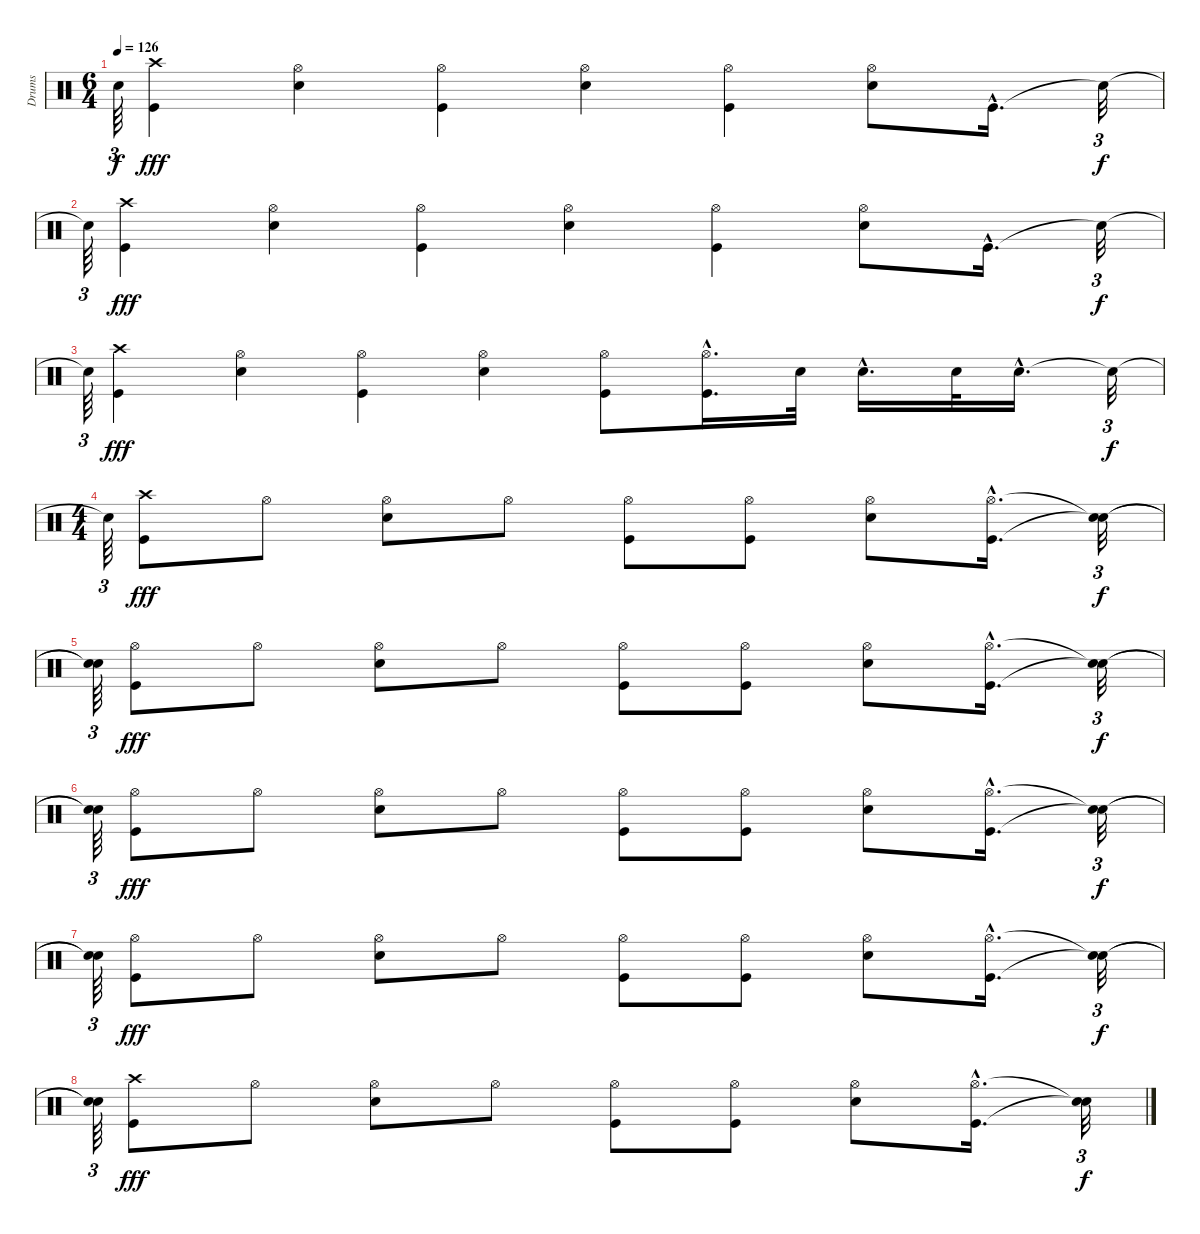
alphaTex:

\track ("Drums" "Drums") {instrument percussion}
\staff {score}
\articulation defaults
\ts (6 4)
\tempo 126
\clef neutral
\ks c "Snare (hit)"{t}.64{tu (3 2) dy f}
("Kick (hit)" "Crash high (hit)").4{dy fff} ("Snare (hit) 2" "Hi-Hat (open)").4 ("Kick (hit)" "Hi-Hat (open)").4 ("Snare (hit) 2" "Hi-Hat (open)").4 ("Kick (hit)" "Hi-Hat (open)").4 ("Snare (hit) 2" "Hi-Hat (open)").8 "Kick (hit)"{hac}.16{d} "Snare (hit)"{t}.32{tu (3 2) dy f} |
"Snare (hit)"{t}.64{tu (3 2)} ("Kick (hit)" "Crash high (hit)").4{dy fff} ("Snare (hit) 2" "Hi-Hat (open)").4 ("Kick (hit)" "Hi-Hat (open)").4 ("Snare (hit) 2" "Hi-Hat (open)").4 ("Kick (hit)" "Hi-Hat (open)").4 ("Snare (hit) 2" "Hi-Hat (open)").8 "Kick (hit)"{hac}.16{d} "Snare (hit)"{t}.32{tu (3 2) dy f} |
"Snare (hit)"{t}.64{tu (3 2)} ("Kick (hit)" "Crash high (hit)").4{dy fff} ("Snare (hit) 2" "Hi-Hat (open)").4 ("Kick (hit)" "Hi-Hat (open)").4 ("Snare (hit) 2" "Hi-Hat (open)").4 ("Kick (hit)" "Hi-Hat (open)").8 ("Kick (hit)" "Hi-Hat (open)"{hac}).16{d} "Snare (hit) 2".32 "Snare (hit) 2"{hac}.16{d} "Snare (hit) 2".32 "Snare (hit) 2"{hac}.16{d} "Snare (hit)"{t}.32{tu (3 2) dy f} |
\ts (4 4)
"Snare (hit)"{t}.64{tu (3 2)} ("Kick (hit)" "Crash high (hit)").8{dy fff} "Hi-Hat (open)".8 ("Snare (hit) 2" "Hi-Hat (open)").8 "Hi-Hat (open)".8 ("Kick (hit)" "Hi-Hat (open)").8 ("Kick (hit)" "Hi-Hat (open)").8 ("Snare (hit) 2" "Hi-Hat (open)").8 ("Kick (hit)"{hac} "Hi-Hat (open)"{hac}).16{d} ("Snare (hit)"{t} "Snare (hit)"{t}).32{tu (3 2) dy f} |
("Snare (hit)"{t} "Snare (hit)"{t}).64{tu (3 2)} ("Kick (hit)" "Hi-Hat (open)").8{dy fff} "Hi-Hat (open)".8 ("Snare (hit) 2" "Hi-Hat (open)").8 "Hi-Hat (open)".8 ("Kick (hit)" "Hi-Hat (open)").8 ("Kick (hit)" "Hi-Hat (open)").8 ("Snare (hit) 2" "Hi-Hat (open)").8 ("Kick (hit)"{hac} "Hi-Hat (open)"{hac}).16{d} ("Snare (hit)"{t} "Snare (hit)"{t}).32{tu (3 2) dy f} |
("Snare (hit)"{t} "Snare (hit)"{t}).64{tu (3 2)} ("Kick (hit)" "Hi-Hat (open)").8{dy fff} "Hi-Hat (open)".8 ("Snare (hit) 2" "Hi-Hat (open)").8 "Hi-Hat (open)".8 ("Kick (hit)" "Hi-Hat (open)").8 ("Kick (hit)" "Hi-Hat (open)").8 ("Snare (hit) 2" "Hi-Hat (open)").8 ("Kick (hit)"{hac} "Hi-Hat (open)"{hac}).16{d} ("Snare (hit)"{t} "Snare (hit)"{t}).32{tu (3 2) dy f} |
("Snare (hit)"{t} "Snare (hit)"{t}).64{tu (3 2)} ("Kick (hit)" "Hi-Hat (open)").8{dy fff} "Hi-Hat (open)".8 ("Snare (hit) 2" "Hi-Hat (open)").8 "Hi-Hat (open)".8 ("Kick (hit)" "Hi-Hat (open)").8 ("Kick (hit)" "Hi-Hat (open)").8 ("Snare (hit) 2" "Hi-Hat (open)").8 ("Kick (hit)"{hac} "Hi-Hat (open)"{hac}).16{d} ("Snare (hit)"{t} "Snare (hit)"{t}).32{tu (3 2) dy f} |
("Snare (hit)"{t} "Snare (hit)"{t}).64{tu (3 2)} ("Kick (hit)" "Crash high (hit)").8{dy fff} "Hi-Hat (open)".8 ("Snare (hit) 2" "Hi-Hat (open)").8 "Hi-Hat (open)".8 ("Kick (hit)" "Hi-Hat (open)").8 ("Kick (hit)" "Hi-Hat (open)").8 ("Snare (hit) 2" "Hi-Hat (open)").8 ("Kick (hit)"{hac} "Hi-Hat (open)"{hac}).16{d} ("Snare (hit)"{t} "Snare (hit)"{t}).32{tu (3 2) dy f}
